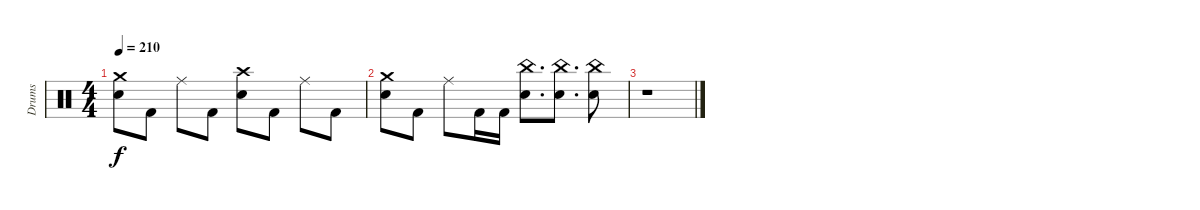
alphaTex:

\track ("Drums" "Drums") {instrument percussion}
\staff {score}
\articulation defaults
\ts (4 4)
\tempo 210
\clef neutral
\ks c
("Crash medium (hit)" "Electric Snare (hit)").8{dy f} "Kick (hit) 2".8 "Ride (middle)".8 "Kick (hit) 2".8 ("Crash high (hit)" "Electric Snare (hit)").8 "Kick (hit) 2".8 "Ride (middle)".8 "Kick (hit) 2".8 |
("Crash medium (hit)" "Electric Snare (hit)").8 "Kick (hit) 2".8 "Ride (middle)".8 "Kick (hit) 2".16 "Kick (hit) 2".16 ("China (hit)" "Electric Snare (hit)").8{d} ("China (hit)" "Electric Snare (hit)").8{d} ("China (hit)" "Electric Snare (hit)").8 |
r.1
